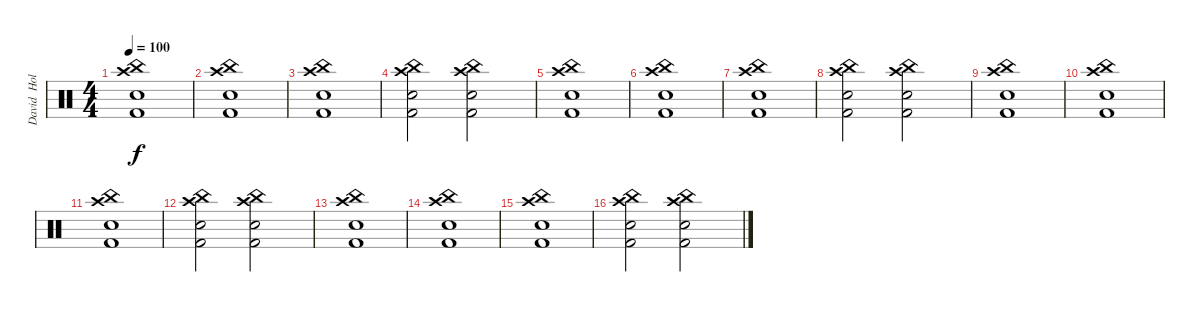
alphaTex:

\track ("David  Holland" "David  Hol") {instrument percussion}
\staff {score}
\articulation defaults
\ts (4 4)
\tempo 100
\clef neutral
\ks c
("Electric Snare (hit)" "Kick (hit) 2" "Crash high (hit)" "China (hit)").1{dy f} |
("Electric Snare (hit)" "Kick (hit) 2" "Crash high (hit)" "China (hit)").1 |
("Electric Snare (hit)" "Kick (hit) 2" "Crash high (hit)" "China (hit)").1 |
("Electric Snare (hit)" "Kick (hit) 2" "Crash high (hit)" "China (hit)").2 ("Electric Snare (hit)" "Kick (hit) 2" "Crash high (hit)" "China (hit)").2 |
("Electric Snare (hit)" "Kick (hit) 2" "Crash high (hit)" "China (hit)").1 |
("Electric Snare (hit)" "Kick (hit) 2" "Crash high (hit)" "China (hit)").1 |
("Electric Snare (hit)" "Kick (hit) 2" "Crash high (hit)" "China (hit)").1 |
("Electric Snare (hit)" "Kick (hit) 2" "Crash high (hit)" "China (hit)").2 ("Electric Snare (hit)" "Kick (hit) 2" "Crash high (hit)" "China (hit)").2 |
("Electric Snare (hit)" "Kick (hit) 2" "Crash high (hit)" "China (hit)").1 |
("Electric Snare (hit)" "Kick (hit) 2" "Crash high (hit)" "China (hit)").1 |
("Electric Snare (hit)" "Kick (hit) 2" "Crash high (hit)" "China (hit)").1 |
("Electric Snare (hit)" "Kick (hit) 2" "Crash high (hit)" "China (hit)").2 ("Electric Snare (hit)" "Kick (hit) 2" "Crash high (hit)" "China (hit)").2 |
("Electric Snare (hit)" "Kick (hit) 2" "Crash high (hit)" "China (hit)").1 |
("Electric Snare (hit)" "Kick (hit) 2" "Crash high (hit)" "China (hit)").1 |
("Electric Snare (hit)" "Kick (hit) 2" "Crash high (hit)" "China (hit)").1 |
("Electric Snare (hit)" "Kick (hit) 2" "Crash high (hit)" "China (hit)").2 ("Electric Snare (hit)" "Kick (hit) 2" "Crash high (hit)" "China (hit)").2
